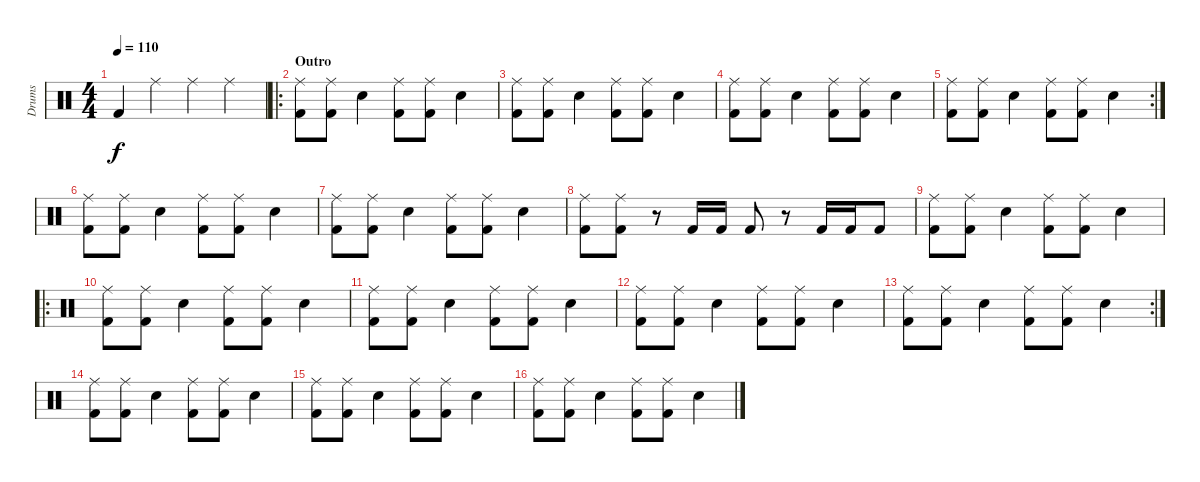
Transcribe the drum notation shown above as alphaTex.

\track ("Drums" "Drums") {instrument percussion}
\staff {score}
\articulation defaults
\ts (4 4)
\tempo 110
\clef neutral
\ks c "Kick (hit) 2".4{dy f} "Ride (middle)".4 "Ride (middle)".4 "Ride (middle)".4
|
\ro
\section ("" "Outro")
("Ride (middle)" "Kick (hit) 2").8 ("Ride (middle)" "Kick (hit) 2").8 "Snare (hit) 2".4 ("Ride (middle)" "Kick (hit) 2").8 ("Ride (middle)" "Kick (hit) 2").8 "Snare (hit) 2".4 |
("Ride (middle)" "Kick (hit) 2").8 ("Ride (middle)" "Kick (hit) 2").8 "Snare (hit) 2".4 ("Ride (middle)" "Kick (hit) 2").8 ("Ride (middle)" "Kick (hit) 2").8 "Snare (hit) 2".4 |
("Ride (middle)" "Kick (hit) 2").8 ("Ride (middle)" "Kick (hit) 2").8 "Snare (hit) 2".4 ("Ride (middle)" "Kick (hit) 2").8 ("Ride (middle)" "Kick (hit) 2").8 "Snare (hit) 2".4 |
\rc 2
("Ride (middle)" "Kick (hit) 2").8 ("Ride (middle)" "Kick (hit) 2").8 "Snare (hit) 2".4 ("Ride (middle)" "Kick (hit) 2").8 ("Ride (middle)" "Kick (hit) 2").8 "Snare (hit) 2".4 |
("Ride (middle)" "Kick (hit) 2").8 ("Ride (middle)" "Kick (hit) 2").8 "Snare (hit) 2".4 ("Ride (middle)" "Kick (hit) 2").8 ("Ride (middle)" "Kick (hit) 2").8 "Snare (hit) 2".4 |
("Ride (middle)" "Kick (hit) 2").8 ("Ride (middle)" "Kick (hit) 2").8 "Snare (hit) 2".4 ("Ride (middle)" "Kick (hit) 2").8 ("Ride (middle)" "Kick (hit) 2").8 "Snare (hit) 2".4 |
("Ride (middle)" "Kick (hit) 2").8 ("Ride (middle)" "Kick (hit) 2").8 r.8 "Kick (hit) 2".16 "Kick (hit) 2".16 "Kick (hit) 2".8 r.8 "Kick (hit) 2".16 "Kick (hit) 2".16 "Kick (hit) 2".8 |
("Ride (middle)" "Kick (hit) 2").8 ("Ride (middle)" "Kick (hit) 2").8 "Snare (hit) 2".4 ("Ride (middle)" "Kick (hit) 2").8 ("Ride (middle)" "Kick (hit) 2").8 "Snare (hit) 2".4 |
\ro
("Ride (middle)" "Kick (hit) 2").8 ("Ride (middle)" "Kick (hit) 2").8 "Snare (hit) 2".4 ("Ride (middle)" "Kick (hit) 2").8 ("Ride (middle)" "Kick (hit) 2").8 "Snare (hit) 2".4 |
("Ride (middle)" "Kick (hit) 2").8 ("Ride (middle)" "Kick (hit) 2").8 "Snare (hit) 2".4 ("Ride (middle)" "Kick (hit) 2").8 ("Ride (middle)" "Kick (hit) 2").8 "Snare (hit) 2".4 |
("Ride (middle)" "Kick (hit) 2").8 ("Ride (middle)" "Kick (hit) 2").8 "Snare (hit) 2".4 ("Ride (middle)" "Kick (hit) 2").8 ("Ride (middle)" "Kick (hit) 2").8 "Snare (hit) 2".4 |
\rc 2
("Ride (middle)" "Kick (hit) 2").8 ("Ride (middle)" "Kick (hit) 2").8 "Snare (hit) 2".4 ("Ride (middle)" "Kick (hit) 2").8 ("Ride (middle)" "Kick (hit) 2").8 "Snare (hit) 2".4 |
("Ride (middle)" "Kick (hit) 2").8 ("Ride (middle)" "Kick (hit) 2").8 "Snare (hit) 2".4 ("Ride (middle)" "Kick (hit) 2").8 ("Ride (middle)" "Kick (hit) 2").8 "Snare (hit) 2".4 |
("Ride (middle)" "Kick (hit) 2").8 ("Ride (middle)" "Kick (hit) 2").8 "Snare (hit) 2".4 ("Ride (middle)" "Kick (hit) 2").8 ("Ride (middle)" "Kick (hit) 2").8 "Snare (hit) 2".4 |
("Ride (middle)" "Kick (hit) 2").8 ("Ride (middle)" "Kick (hit) 2").8 "Snare (hit) 2".4 ("Ride (middle)" "Kick (hit) 2").8 ("Ride (middle)" "Kick (hit) 2").8 "Snare (hit) 2".4
